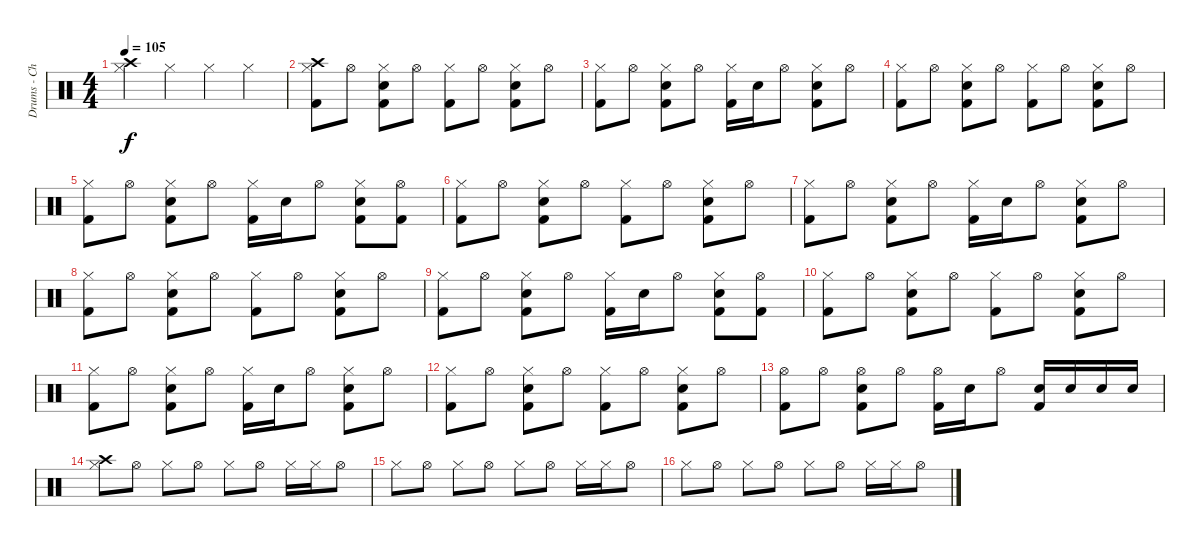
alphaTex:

\track ("Drums - Christoph Schneider" "Drums - Ch") {instrument percussion}
\staff {score}
\articulation defaults
\ts (4 4)
\tempo 105
\clef neutral
\ks c
("Crash high (hit)" "Hi-Hat (closed)").4{dy f} "Hi-Hat (closed)".4 "Hi-Hat (closed)".4 "Hi-Hat (closed)".4 |
("Crash high (hit)" "Hi-Hat (closed)" "Kick (hit) 2").8 "Hi-Hat (open)".8 ("Hi-Hat (closed)" "Snare (hit) 2" "Kick (hit) 2").8 "Hi-Hat (open)".8 ("Hi-Hat (closed)" "Kick (hit) 2").8 "Hi-Hat (open)".8 ("Hi-Hat (closed)" "Snare (hit) 2" "Kick (hit) 2").8 "Hi-Hat (open)".8 |
("Hi-Hat (closed)" "Kick (hit) 2").8 "Hi-Hat (open)".8 ("Hi-Hat (closed)" "Snare (hit) 2" "Kick (hit) 2").8 "Hi-Hat (open)".8 ("Hi-Hat (closed)" "Kick (hit) 2").16 "Snare (hit) 2".16 "Hi-Hat (open)".8 ("Hi-Hat (closed)" "Snare (hit) 2" "Kick (hit) 2").8 "Hi-Hat (open)".8 |
("Hi-Hat (closed)" "Kick (hit) 2").8 "Hi-Hat (open)".8 ("Hi-Hat (closed)" "Snare (hit) 2" "Kick (hit) 2").8 "Hi-Hat (open)".8 ("Hi-Hat (closed)" "Kick (hit) 2").8 "Hi-Hat (open)".8 ("Hi-Hat (closed)" "Snare (hit) 2" "Kick (hit) 2").8 "Hi-Hat (open)".8 |
("Hi-Hat (closed)" "Kick (hit) 2").8 "Hi-Hat (open)".8 ("Hi-Hat (closed)" "Snare (hit) 2" "Kick (hit) 2").8 "Hi-Hat (open)".8 ("Hi-Hat (closed)" "Kick (hit) 2").16 "Snare (hit) 2".16 "Hi-Hat (open)".8 ("Hi-Hat (closed)" "Snare (hit) 2" "Kick (hit) 2").8 ("Hi-Hat (open)" "Kick (hit) 2").8 |
("Hi-Hat (closed)" "Kick (hit) 2").8 "Hi-Hat (open)".8 ("Hi-Hat (closed)" "Snare (hit) 2" "Kick (hit) 2").8 "Hi-Hat (open)".8 ("Hi-Hat (closed)" "Kick (hit) 2").8 "Hi-Hat (open)".8 ("Hi-Hat (closed)" "Snare (hit) 2" "Kick (hit) 2").8 "Hi-Hat (open)".8 |
("Hi-Hat (closed)" "Kick (hit) 2").8 "Hi-Hat (open)".8 ("Hi-Hat (closed)" "Snare (hit) 2" "Kick (hit) 2").8 "Hi-Hat (open)".8 ("Hi-Hat (closed)" "Kick (hit) 2").16 "Snare (hit) 2".16 "Hi-Hat (open)".8 ("Hi-Hat (closed)" "Snare (hit) 2" "Kick (hit) 2").8 "Hi-Hat (open)".8 |
("Hi-Hat (closed)" "Kick (hit) 2").8 "Hi-Hat (open)".8 ("Hi-Hat (closed)" "Snare (hit) 2" "Kick (hit) 2").8 "Hi-Hat (open)".8 ("Hi-Hat (closed)" "Kick (hit) 2").8 "Hi-Hat (open)".8 ("Hi-Hat (closed)" "Snare (hit) 2" "Kick (hit) 2").8 "Hi-Hat (open)".8 |
("Hi-Hat (closed)" "Kick (hit) 2").8 "Hi-Hat (open)".8 ("Hi-Hat (closed)" "Snare (hit) 2" "Kick (hit) 2").8 "Hi-Hat (open)".8 ("Hi-Hat (closed)" "Kick (hit) 2").16 "Snare (hit) 2".16 "Hi-Hat (open)".8 ("Hi-Hat (closed)" "Snare (hit) 2" "Kick (hit) 2").8 ("Hi-Hat (open)" "Kick (hit) 2").8 |
("Hi-Hat (closed)" "Kick (hit) 2").8 "Hi-Hat (open)".8 ("Hi-Hat (closed)" "Snare (hit) 2" "Kick (hit) 2").8 "Hi-Hat (open)".8 ("Hi-Hat (closed)" "Kick (hit) 2").8 "Hi-Hat (open)".8 ("Hi-Hat (closed)" "Snare (hit) 2" "Kick (hit) 2").8 "Hi-Hat (open)".8 |
("Hi-Hat (closed)" "Kick (hit) 2").8 "Hi-Hat (open)".8 ("Hi-Hat (closed)" "Snare (hit) 2" "Kick (hit) 2").8 "Hi-Hat (open)".8 ("Hi-Hat (closed)" "Kick (hit) 2").16 "Snare (hit) 2".16 "Hi-Hat (open)".8 ("Hi-Hat (closed)" "Snare (hit) 2" "Kick (hit) 2").8 "Hi-Hat (open)".8 |
("Hi-Hat (closed)" "Kick (hit) 2").8 "Hi-Hat (open)".8 ("Hi-Hat (closed)" "Snare (hit) 2" "Kick (hit) 2").8 "Hi-Hat (open)".8 ("Hi-Hat (closed)" "Kick (hit) 2").8 "Hi-Hat (open)".8 ("Hi-Hat (closed)" "Snare (hit) 2" "Kick (hit) 2").8 "Hi-Hat (open)".8 |
("Hi-Hat (open)" "Kick (hit) 2").8 "Hi-Hat (open)".8 ("Hi-Hat (open)" "Snare (hit) 2" "Kick (hit) 2").8 "Hi-Hat (open)".8 ("Hi-Hat (open)" "Kick (hit) 2").16 "Snare (hit) 2".16 "Hi-Hat (open)".8 ("Snare (hit) 2" "Kick (hit) 2").16 "Snare (hit) 2".16 "Snare (hit) 2".16 "Snare (hit) 2".16 |
("Crash high (hit)" "Hi-Hat (closed)").8 "Hi-Hat (open)".8 "Hi-Hat (closed)".8 "Hi-Hat (open)".8 "Hi-Hat (closed)".8 "Hi-Hat (open)".8 "Hi-Hat (closed)".16 "Hi-Hat (closed)".16 "Hi-Hat (open)".8 |
"Hi-Hat (closed)".8 "Hi-Hat (open)".8 "Hi-Hat (closed)".8 "Hi-Hat (open)".8 "Hi-Hat (closed)".8 "Hi-Hat (open)".8 "Hi-Hat (closed)".16 "Hi-Hat (closed)".16 "Hi-Hat (open)".8 |
"Hi-Hat (closed)".8 "Hi-Hat (open)".8 "Hi-Hat (closed)".8 "Hi-Hat (open)".8 "Hi-Hat (closed)".8 "Hi-Hat (open)".8 "Hi-Hat (closed)".16 "Hi-Hat (closed)".16 "Hi-Hat (open)".8
